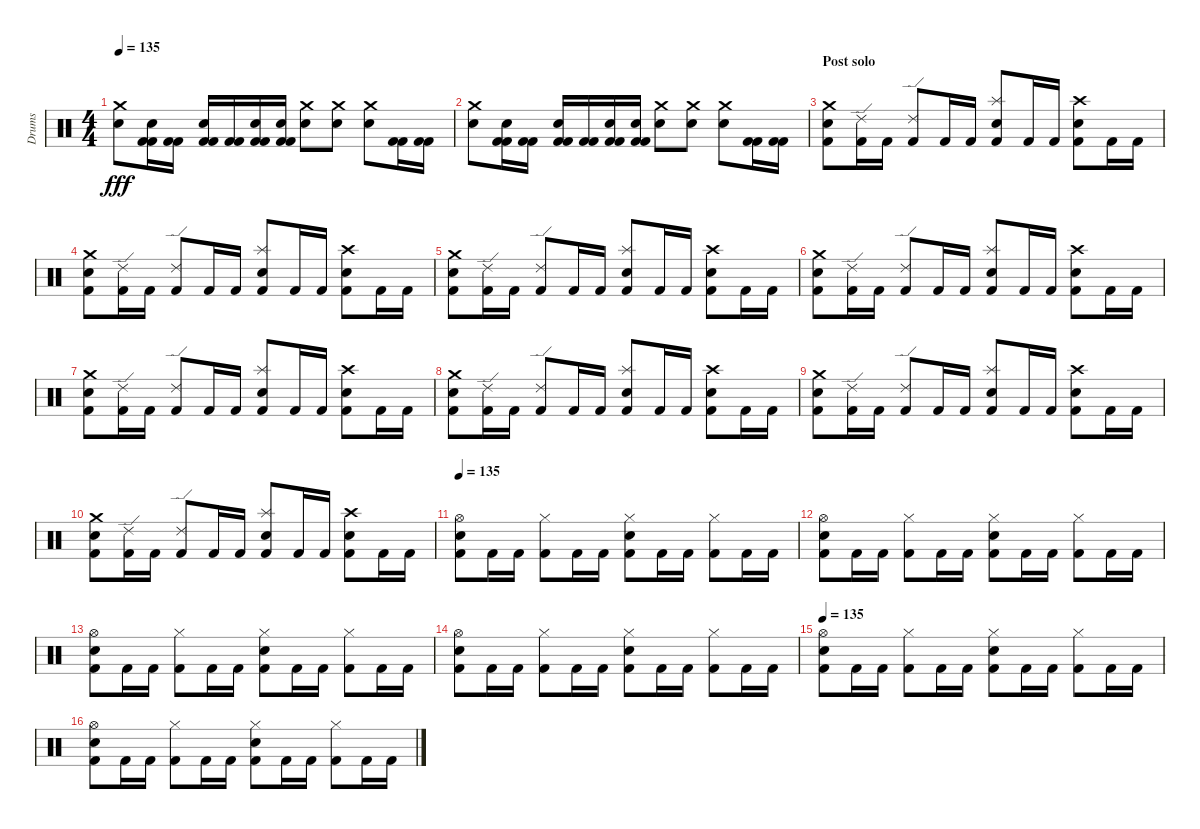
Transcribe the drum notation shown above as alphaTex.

\track ("Drums" "Drums") {instrument percussion}
\staff {score}
\articulation defaults
\ts (4 4)
\tempo 135
\clef neutral
\ks c
("Crash medium (hit)" "Electric Snare (hit)").8{dy fff} ("Electric Snare (hit)" "Kick (hit) 2" "Kick (hit) 2").16 ("Kick (hit) 2" "Kick (hit) 2").16 ("Electric Snare (hit)" "Kick (hit) 2" "Kick (hit) 2").16 ("Kick (hit) 2" "Kick (hit) 2").16 ("Electric Snare (hit)" "Kick (hit) 2" "Kick (hit) 2").16 ("Electric Snare (hit)" "Kick (hit) 2" "Kick (hit) 2").16 ("Electric Snare (hit)" "Crash medium (hit)").8 ("Electric Snare (hit)" "Crash medium (hit)").8 ("Electric Snare (hit)" "Crash medium (hit)").8 ("Kick (hit) 2" "Kick (hit) 2").16 ("Kick (hit) 2" "Kick (hit) 2").16 |
("Crash medium (hit)" "Electric Snare (hit)").8 ("Electric Snare (hit)" "Kick (hit) 2" "Kick (hit) 2").16 ("Kick (hit) 2" "Kick (hit) 2").16 ("Electric Snare (hit)" "Kick (hit) 2" "Kick (hit) 2").16 ("Kick (hit) 2" "Kick (hit) 2").16 ("Electric Snare (hit)" "Kick (hit) 2" "Kick (hit) 2").16 ("Electric Snare (hit)" "Kick (hit) 2" "Kick (hit) 2").16 ("Electric Snare (hit)" "Crash medium (hit)").8 ("Electric Snare (hit)" "Crash medium (hit)").8 ("Electric Snare (hit)" "Crash medium (hit)").8 ("Kick (hit) 2" "Kick (hit) 2").16 ("Kick (hit) 2" "Kick (hit) 2").16 |
\section ("" "Post solo")
("Crash medium (hit)" "Electric Snare (hit)" "Kick (hit) 2").8 ("Ride (edge) 2" "Kick (hit) 2").16 "Kick (hit) 2".16 ("Ride (edge) 2" "Kick (hit) 2").8 "Kick (hit) 2".16 "Kick (hit) 2".16 ("Splash (hit)" "Snare (hit) 2" "Kick (hit) 2").8 "Kick (hit) 2".16 "Kick (hit) 2".16 ("Crash high (hit)" "Snare (hit) 2" "Kick (hit) 2").8 "Kick (hit) 2".16 "Kick (hit) 2".16 |
("Crash medium (hit)" "Electric Snare (hit)" "Kick (hit) 2").8 ("Ride (edge) 2" "Kick (hit) 2").16 "Kick (hit) 2".16 ("Ride (edge) 2" "Kick (hit) 2").8 "Kick (hit) 2".16 "Kick (hit) 2".16 ("Splash (hit)" "Snare (hit) 2" "Kick (hit) 2").8 "Kick (hit) 2".16 "Kick (hit) 2".16 ("Crash high (hit)" "Snare (hit) 2" "Kick (hit) 2").8 "Kick (hit) 2".16 "Kick (hit) 2".16 |
("Crash medium (hit)" "Electric Snare (hit)" "Kick (hit) 2").8 ("Ride (edge) 2" "Kick (hit) 2").16 "Kick (hit) 2".16 ("Ride (edge) 2" "Kick (hit) 2").8 "Kick (hit) 2".16 "Kick (hit) 2".16 ("Splash (hit)" "Snare (hit) 2" "Kick (hit) 2").8 "Kick (hit) 2".16 "Kick (hit) 2".16 ("Crash high (hit)" "Snare (hit) 2" "Kick (hit) 2").8 "Kick (hit) 2".16 "Kick (hit) 2".16 |
("Crash medium (hit)" "Electric Snare (hit)" "Kick (hit) 2").8 ("Ride (edge) 2" "Kick (hit) 2").16 "Kick (hit) 2".16 ("Ride (edge) 2" "Kick (hit) 2").8 "Kick (hit) 2".16 "Kick (hit) 2".16 ("Splash (hit)" "Snare (hit) 2" "Kick (hit) 2").8 "Kick (hit) 2".16 "Kick (hit) 2".16 ("Crash high (hit)" "Snare (hit) 2" "Kick (hit) 2").8 "Kick (hit) 2".16 "Kick (hit) 2".16 |
("Crash medium (hit)" "Electric Snare (hit)" "Kick (hit) 2").8 ("Ride (edge) 2" "Kick (hit) 2").16 "Kick (hit) 2".16 ("Ride (edge) 2" "Kick (hit) 2").8 "Kick (hit) 2".16 "Kick (hit) 2".16 ("Splash (hit)" "Snare (hit) 2" "Kick (hit) 2").8 "Kick (hit) 2".16 "Kick (hit) 2".16 ("Crash high (hit)" "Snare (hit) 2" "Kick (hit) 2").8 "Kick (hit) 2".16 "Kick (hit) 2".16 |
("Crash medium (hit)" "Electric Snare (hit)" "Kick (hit) 2").8 ("Ride (edge) 2" "Kick (hit) 2").16 "Kick (hit) 2".16 ("Ride (edge) 2" "Kick (hit) 2").8 "Kick (hit) 2".16 "Kick (hit) 2".16 ("Splash (hit)" "Snare (hit) 2" "Kick (hit) 2").8 "Kick (hit) 2".16 "Kick (hit) 2".16 ("Crash high (hit)" "Snare (hit) 2" "Kick (hit) 2").8 "Kick (hit) 2".16 "Kick (hit) 2".16 |
("Crash medium (hit)" "Electric Snare (hit)" "Kick (hit) 2").8 ("Ride (edge) 2" "Kick (hit) 2").16 "Kick (hit) 2".16 ("Ride (edge) 2" "Kick (hit) 2").8 "Kick (hit) 2".16 "Kick (hit) 2".16 ("Splash (hit)" "Snare (hit) 2" "Kick (hit) 2").8 "Kick (hit) 2".16 "Kick (hit) 2".16 ("Crash high (hit)" "Snare (hit) 2" "Kick (hit) 2").8 "Kick (hit) 2".16 "Kick (hit) 2".16 |
("Crash medium (hit)" "Electric Snare (hit)" "Kick (hit) 2").8 ("Ride (edge) 2" "Kick (hit) 2").16 "Kick (hit) 2".16 ("Ride (edge) 2" "Kick (hit) 2").8 "Kick (hit) 2".16 "Kick (hit) 2".16 ("Splash (hit)" "Snare (hit) 2" "Kick (hit) 2").8 "Kick (hit) 2".16 "Kick (hit) 2".16 ("Crash high (hit)" "Snare (hit) 2" "Kick (hit) 2").8 "Kick (hit) 2".16 "Kick (hit) 2".16 |
\tempo 135
("Electric Snare (hit)" "Hi-Hat (open)" "Kick (hit) 2").8 "Kick (hit) 2".16 "Kick (hit) 2".16 ("Hi-Hat (closed)" "Kick (hit) 2").8 "Kick (hit) 2".16 "Kick (hit) 2".16 ("Hi-Hat (closed)" "Electric Snare (hit)" "Kick (hit) 2").8 "Kick (hit) 2".16 "Kick (hit) 2".16 ("Hi-Hat (closed)" "Kick (hit) 2").8 "Kick (hit) 2".16 "Kick (hit) 2".16 |
("Electric Snare (hit)" "Hi-Hat (open)" "Kick (hit) 2").8 "Kick (hit) 2".16 "Kick (hit) 2".16 ("Hi-Hat (closed)" "Kick (hit) 2").8 "Kick (hit) 2".16 "Kick (hit) 2".16 ("Hi-Hat (closed)" "Electric Snare (hit)" "Kick (hit) 2").8 "Kick (hit) 2".16 "Kick (hit) 2".16 ("Hi-Hat (closed)" "Kick (hit) 2").8 "Kick (hit) 2".16 "Kick (hit) 2".16 |
("Electric Snare (hit)" "Hi-Hat (open)" "Kick (hit) 2").8 "Kick (hit) 2".16 "Kick (hit) 2".16 ("Hi-Hat (closed)" "Kick (hit) 2").8 "Kick (hit) 2".16 "Kick (hit) 2".16 ("Hi-Hat (closed)" "Electric Snare (hit)" "Kick (hit) 2").8 "Kick (hit) 2".16 "Kick (hit) 2".16 ("Hi-Hat (closed)" "Kick (hit) 2").8 "Kick (hit) 2".16 "Kick (hit) 2".16 |
("Electric Snare (hit)" "Hi-Hat (open)" "Kick (hit) 2").8 "Kick (hit) 2".16 "Kick (hit) 2".16 ("Hi-Hat (closed)" "Kick (hit) 2").8 "Kick (hit) 2".16 "Kick (hit) 2".16 ("Hi-Hat (closed)" "Electric Snare (hit)" "Kick (hit) 2").8 "Kick (hit) 2".16 "Kick (hit) 2".16 ("Hi-Hat (closed)" "Kick (hit) 2").8 "Kick (hit) 2".16 "Kick (hit) 2".16 |
\tempo 135
("Electric Snare (hit)" "Hi-Hat (open)" "Kick (hit) 2").8 "Kick (hit) 2".16 "Kick (hit) 2".16 ("Hi-Hat (closed)" "Kick (hit) 2").8 "Kick (hit) 2".16 "Kick (hit) 2".16 ("Hi-Hat (closed)" "Electric Snare (hit)" "Kick (hit) 2").8 "Kick (hit) 2".16 "Kick (hit) 2".16 ("Hi-Hat (closed)" "Kick (hit) 2").8 "Kick (hit) 2".16 "Kick (hit) 2".16 |
("Electric Snare (hit)" "Hi-Hat (open)" "Kick (hit) 2").8 "Kick (hit) 2".16 "Kick (hit) 2".16 ("Hi-Hat (closed)" "Kick (hit) 2").8 "Kick (hit) 2".16 "Kick (hit) 2".16 ("Hi-Hat (closed)" "Electric Snare (hit)" "Kick (hit) 2").8 "Kick (hit) 2".16 "Kick (hit) 2".16 ("Hi-Hat (closed)" "Kick (hit) 2").8 "Kick (hit) 2".16 "Kick (hit) 2".16
